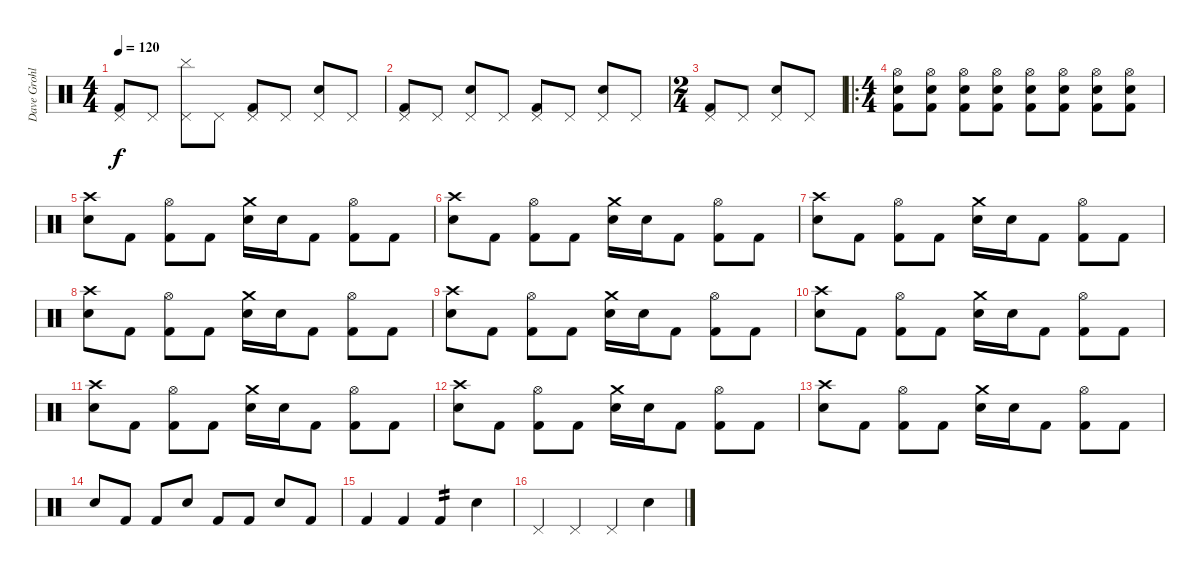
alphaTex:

\track ("Dave Grohl" "Dave Grohl") {instrument percussion}
\staff {score}
\articulation defaults
\ts (4 4)
\tempo 120
\clef neutral
\ks c
("Pedal Hi-Hat (hit)" "Kick (hit) 2").8{dy f} "Pedal Hi-Hat (hit)".8 ("Pedal Hi-Hat (hit)" "Cymbal (hit)").8 "Pedal Hi-Hat (hit)".8 ("Pedal Hi-Hat (hit)" "Kick (hit) 2").8 "Pedal Hi-Hat (hit)".8 ("Pedal Hi-Hat (hit)" "Electric Snare (hit)").8 "Pedal Hi-Hat (hit)".8 |
("Pedal Hi-Hat (hit)" "Kick (hit) 2").8 "Pedal Hi-Hat (hit)".8 ("Pedal Hi-Hat (hit)" "Electric Snare (hit)").8 "Pedal Hi-Hat (hit)".8 ("Pedal Hi-Hat (hit)" "Kick (hit) 2").8 "Pedal Hi-Hat (hit)".8 ("Pedal Hi-Hat (hit)" "Electric Snare (hit)").8 "Pedal Hi-Hat (hit)".8 |
\ts (2 4)
("Pedal Hi-Hat (hit)" "Kick (hit) 2").8 "Pedal Hi-Hat (hit)".8 ("Pedal Hi-Hat (hit)" "Electric Snare (hit)").8 "Pedal Hi-Hat (hit)".8 |
\ro
\ts (4 4)
("Hi-Hat (open)" "Electric Snare (hit)" "Kick (hit) 2").8 ("Hi-Hat (open)" "Electric Snare (hit)" "Kick (hit) 2").8 ("Hi-Hat (open)" "Electric Snare (hit)" "Kick (hit) 2").8 ("Hi-Hat (open)" "Electric Snare (hit)" "Kick (hit) 2").8 ("Hi-Hat (open)" "Electric Snare (hit)" "Kick (hit) 2").8 ("Hi-Hat (open)" "Electric Snare (hit)" "Kick (hit) 2").8 ("Hi-Hat (open)" "Electric Snare (hit)" "Kick (hit) 2").8 ("Hi-Hat (open)" "Electric Snare (hit)" "Kick (hit) 2").8 |
("Electric Snare (hit)" "Crash high (hit)").8 "Kick (hit) 2".8 ("Hi-Hat (open)" "Kick (hit) 2").8 "Kick (hit) 2".8 ("Crash medium (hit)" "Electric Snare (hit)").16 "Electric Snare (hit)".16 "Kick (hit) 2".8 ("Hi-Hat (open)" "Kick (hit) 2").8 "Kick (hit) 2".8 |
("Electric Snare (hit)" "Crash high (hit)").8 "Kick (hit) 2".8 ("Hi-Hat (open)" "Kick (hit) 2").8 "Kick (hit) 2".8 ("Crash medium (hit)" "Electric Snare (hit)").16 "Electric Snare (hit)".16 "Kick (hit) 2".8 ("Hi-Hat (open)" "Kick (hit) 2").8 "Kick (hit) 2".8 |
("Electric Snare (hit)" "Crash high (hit)").8 "Kick (hit) 2".8 ("Hi-Hat (open)" "Kick (hit) 2").8 "Kick (hit) 2".8 ("Crash medium (hit)" "Electric Snare (hit)").16 "Electric Snare (hit)".16 "Kick (hit) 2".8 ("Hi-Hat (open)" "Kick (hit) 2").8 "Kick (hit) 2".8 |
("Electric Snare (hit)" "Crash high (hit)").8 "Kick (hit) 2".8 ("Hi-Hat (open)" "Kick (hit) 2").8 "Kick (hit) 2".8 ("Crash medium (hit)" "Electric Snare (hit)").16 "Electric Snare (hit)".16 "Kick (hit) 2".8 ("Hi-Hat (open)" "Kick (hit) 2").8 "Kick (hit) 2".8 |
("Electric Snare (hit)" "Crash high (hit)").8 "Kick (hit) 2".8 ("Hi-Hat (open)" "Kick (hit) 2").8 "Kick (hit) 2".8 ("Crash medium (hit)" "Electric Snare (hit)").16 "Electric Snare (hit)".16 "Kick (hit) 2".8 ("Hi-Hat (open)" "Kick (hit) 2").8 "Kick (hit) 2".8 |
("Electric Snare (hit)" "Crash high (hit)").8 "Kick (hit) 2".8 ("Hi-Hat (open)" "Kick (hit) 2").8 "Kick (hit) 2".8 ("Crash medium (hit)" "Electric Snare (hit)").16 "Electric Snare (hit)".16 "Kick (hit) 2".8 ("Hi-Hat (open)" "Kick (hit) 2").8 "Kick (hit) 2".8 |
("Electric Snare (hit)" "Crash high (hit)").8 "Kick (hit) 2".8 ("Hi-Hat (open)" "Kick (hit) 2").8 "Kick (hit) 2".8 ("Crash medium (hit)" "Electric Snare (hit)").16 "Electric Snare (hit)".16 "Kick (hit) 2".8 ("Hi-Hat (open)" "Kick (hit) 2").8 "Kick (hit) 2".8 |
("Electric Snare (hit)" "Crash high (hit)").8 "Kick (hit) 2".8 ("Hi-Hat (open)" "Kick (hit) 2").8 "Kick (hit) 2".8 ("Crash medium (hit)" "Electric Snare (hit)").16 "Electric Snare (hit)".16 "Kick (hit) 2".8 ("Hi-Hat (open)" "Kick (hit) 2").8 "Kick (hit) 2".8 |
("Electric Snare (hit)" "Crash high (hit)").8 "Kick (hit) 2".8 ("Hi-Hat (open)" "Kick (hit) 2").8 "Kick (hit) 2".8 ("Crash medium (hit)" "Electric Snare (hit)").16 "Electric Snare (hit)".16 "Kick (hit) 2".8 ("Hi-Hat (open)" "Kick (hit) 2").8 "Kick (hit) 2".8 |
"Electric Snare (hit)".8 "Kick (hit) 2".8 "Kick (hit) 2".8 "Electric Snare (hit)".8 "Kick (hit) 2".8 "Kick (hit) 2".8 "Electric Snare (hit)".8 "Kick (hit) 2".8 |
"Kick (hit) 2".4 "Kick (hit) 2".4 "Kick (hit) 2".4{tp 2} "Electric Snare (hit)".4 |
"Pedal Hi-Hat (hit)".4 "Pedal Hi-Hat (hit)".4 "Pedal Hi-Hat (hit)".4 "Electric Snare (hit)".4
